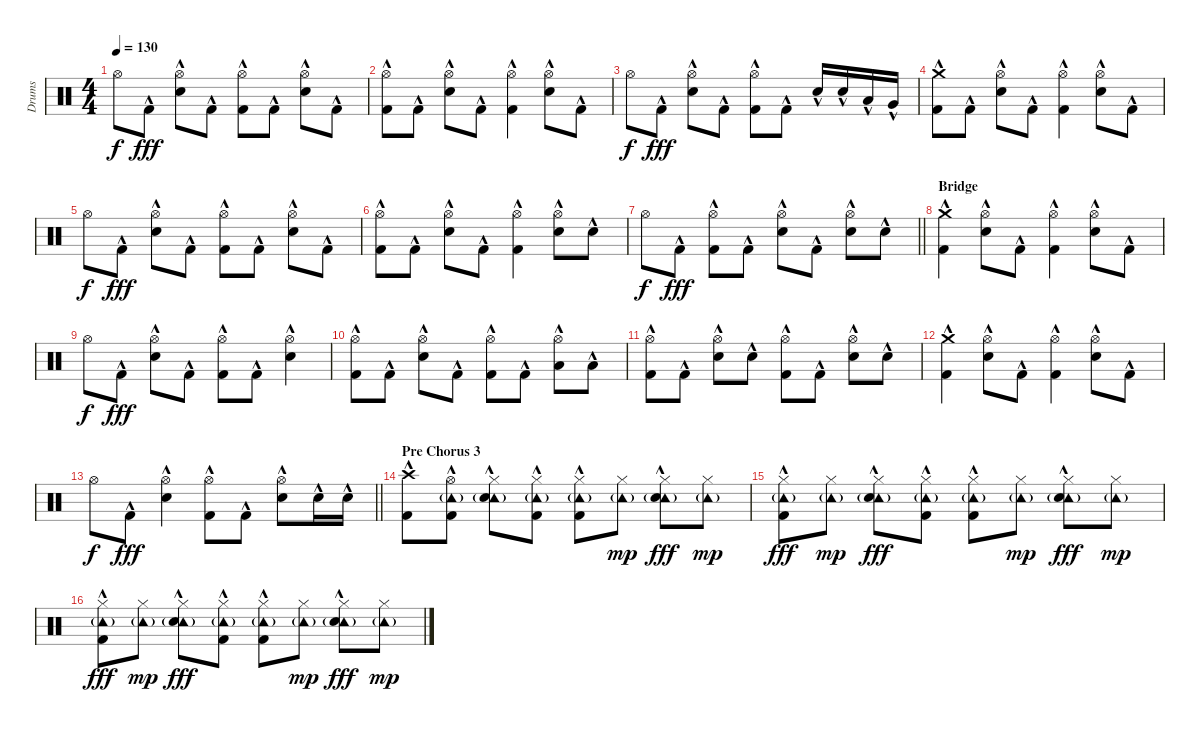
\track ("Drums" "Drums") {instrument percussion}
\staff {score}
\articulation defaults
\ts (4 4)
\tempo 130
\clef neutral
\ks c "Hi-Hat (open)".8{dy f} "Kick (hit) 2"{hac}.8{dy fff}
("Hi-Hat (open)" "Electric Snare (hit)"{hac}).8 "Kick (hit) 2"{hac}.8 ("Hi-Hat (open)" "Kick (hit) 2"{hac}).8 "Kick (hit) 2"{hac}.8 ("Hi-Hat (open)" "Electric Snare (hit)"{hac}).8 "Kick (hit) 2"{hac}.8 |
("Hi-Hat (open)" "Kick (hit) 2"{hac}).8 "Kick (hit) 2"{hac}.8 ("Hi-Hat (open)" "Electric Snare (hit)"{hac}).8 "Kick (hit) 2"{hac}.8 ("Hi-Hat (open)" "Kick (hit) 2"{hac}).4 ("Hi-Hat (open)" "Electric Snare (hit)"{hac}).8 "Kick (hit) 2"{hac}.8 |
"Hi-Hat (open)".8{dy f} "Kick (hit) 2"{hac}.8{dy fff} ("Hi-Hat (open)" "Electric Snare (hit)"{hac}).8 "Kick (hit) 2"{hac}.8 ("Hi-Hat (open)" "Kick (hit) 2"{hac}).8 "Kick (hit) 2"{hac}.8 "Electric Snare (hit)"{hac}.16 "Electric Snare (hit)"{hac}.16 "Low Tom (hit)"{hac}.16 "Very Low Tom (hit)"{hac}.16 |
("Crash medium (hit)" "Kick (hit) 2"{hac}).8 "Kick (hit) 2"{hac}.8 ("Hi-Hat (open)" "Electric Snare (hit)"{hac}).8 "Kick (hit) 2"{hac}.8 ("Hi-Hat (open)" "Kick (hit) 2"{hac}).4 ("Hi-Hat (open)" "Electric Snare (hit)"{hac}).8 "Kick (hit) 2"{hac}.8 |
"Hi-Hat (open)".8{dy f} "Kick (hit) 2"{hac}.8{dy fff} ("Hi-Hat (open)" "Electric Snare (hit)"{hac}).8 "Kick (hit) 2"{hac}.8 ("Hi-Hat (open)" "Kick (hit) 2"{hac}).8 "Kick (hit) 2"{hac}.8 ("Hi-Hat (open)" "Electric Snare (hit)"{hac}).8 "Kick (hit) 2"{hac}.8 |
("Hi-Hat (open)" "Kick (hit) 2"{hac}).8 "Kick (hit) 2"{hac}.8 ("Hi-Hat (open)" "Electric Snare (hit)"{hac}).8 "Kick (hit) 2"{hac}.8 ("Hi-Hat (open)" "Kick (hit) 2"{hac}).4 ("Hi-Hat (open)" "Electric Snare (hit)"{hac}).8 "Electric Snare (hit)"{hac}.8 |
\barLineRight lightlight "Hi-Hat (open)".8{dy f} "Kick (hit) 2"{hac}.8{dy fff}
("Hi-Hat (open)" "Kick (hit) 2"{hac}).8 "Kick (hit) 2"{hac}.8 ("Hi-Hat (open)" "Electric Snare (hit)"{hac}).8 "Kick (hit) 2"{hac}.8 ("Hi-Hat (open)" "Electric Snare (hit)"{hac}).8 "Electric Snare (hit)"{hac}.8 |
\section ("" "Bridge")
("Crash medium (hit)" "Kick (hit) 2"{hac}).4 ("Hi-Hat (open)" "Electric Snare (hit)"{hac}).8 "Kick (hit) 2"{hac}.8 ("Hi-Hat (open)" "Kick (hit) 2"{hac}).4 ("Hi-Hat (open)" "Electric Snare (hit)"{hac}).8 "Kick (hit) 2"{hac}.8 |
"Hi-Hat (open)".8{dy f} "Kick (hit) 2"{hac}.8{dy fff} ("Hi-Hat (open)" "Electric Snare (hit)"{hac}).8 "Kick (hit) 2"{hac}.8 ("Hi-Hat (open)" "Kick (hit) 2"{hac}).8 "Kick (hit) 2"{hac}.8 ("Hi-Hat (open)" "Electric Snare (hit)"{hac}).4 |
("Hi-Hat (open)" "Kick (hit) 2"{hac}).8 "Kick (hit) 2"{hac}.8 ("Hi-Hat (open)" "Electric Snare (hit)"{hac}).8 "Kick (hit) 2"{hac}.8 ("Hi-Hat (open)" "Kick (hit) 2"{hac}).8 "Kick (hit) 2"{hac}.8 ("Hi-Hat (open)" "Low Floor Tom (hit)"{hac}).8 "Low Floor Tom (hit)"{hac}.8 |
("Hi-Hat (open)" "Kick (hit) 2"{hac}).8 "Kick (hit) 2"{hac}.8 ("Hi-Hat (open)" "Electric Snare (hit)"{hac}).8 "Electric Snare (hit)"{hac}.8 ("Hi-Hat (open)" "Kick (hit) 2"{hac}).8 "Kick (hit) 2"{hac}.8 ("Hi-Hat (open)" "Electric Snare (hit)"{hac}).8 "Electric Snare (hit)"{hac}.8 |
("Crash medium (hit)" "Kick (hit) 2"{hac}).4 ("Hi-Hat (open)" "Electric Snare (hit)"{hac}).8 "Kick (hit) 2"{hac}.8 ("Hi-Hat (open)" "Kick (hit) 2"{hac}).4 ("Hi-Hat (open)" "Electric Snare (hit)"{hac}).8 "Kick (hit) 2"{hac}.8 |
\barLineRight lightlight "Hi-Hat (open)".8{dy f} "Kick (hit) 2"{hac}.8{dy fff}
("Hi-Hat (open)" "Electric Snare (hit)"{hac}).4 ("Hi-Hat (open)" "Kick (hit) 2"{hac}).8 "Kick (hit) 2"{hac}.8 ("Hi-Hat (open)" "Electric Snare (hit)"{hac}).8 "Electric Snare (hit)"{hac}.16 "Electric Snare (hit)"{hac}.16 |
\section ("" "Pre Chorus 3")
("Crash high (hit)" "Kick (hit) 2"{hac}).8 ("Hi-Hat (open)" "Tambourine (hit)"{g} "Kick (hit) 2"{hac}).8 ("Hi-Hat (closed)" "Tambourine (hit)"{g} "Electric Snare (hit)"{hac}).8 ("Hi-Hat (closed)" "Tambourine (hit)"{g} "Kick (hit) 2"{hac}).8 ("Hi-Hat (closed)" "Tambourine (hit)"{g} "Kick (hit) 2"{hac}).8 ("Hi-Hat (closed)" "Tambourine (hit)"{g}).8{dy mp} ("Hi-Hat (closed)" "Tambourine (hit)"{g} "Electric Snare (hit)"{hac}).8{dy fff} ("Hi-Hat (closed)" "Tambourine (hit)"{g}).8{dy mp} |
("Hi-Hat (closed)" "Tambourine (hit)"{g} "Kick (hit) 2"{hac}).8{dy fff} ("Hi-Hat (closed)" "Tambourine (hit)"{g}).8{dy mp} ("Hi-Hat (closed)" "Tambourine (hit)"{g} "Electric Snare (hit)"{hac}).8{dy fff} ("Hi-Hat (closed)" "Tambourine (hit)"{g} "Kick (hit) 2"{hac}).8 ("Hi-Hat (closed)" "Tambourine (hit)"{g} "Kick (hit) 2"{hac}).8 ("Hi-Hat (closed)" "Tambourine (hit)"{g}).8{dy mp} ("Hi-Hat (closed)" "Tambourine (hit)"{g} "Electric Snare (hit)"{hac}).8{dy fff} ("Hi-Hat (closed)" "Tambourine (hit)"{g}).8{dy mp} |
("Hi-Hat (closed)" "Tambourine (hit)"{g} "Kick (hit) 2"{hac}).8{dy fff} ("Hi-Hat (closed)" "Tambourine (hit)"{g}).8{dy mp} ("Hi-Hat (closed)" "Tambourine (hit)"{g} "Electric Snare (hit)"{hac}).8{dy fff} ("Hi-Hat (closed)" "Tambourine (hit)"{g} "Kick (hit) 2"{hac}).8 ("Hi-Hat (closed)" "Tambourine (hit)"{g} "Kick (hit) 2"{hac}).8 ("Hi-Hat (closed)" "Tambourine (hit)"{g}).8{dy mp} ("Hi-Hat (closed)" "Tambourine (hit)"{g} "Electric Snare (hit)"{hac}).8{dy fff} ("Hi-Hat (closed)" "Tambourine (hit)"{g}).8{dy mp}
